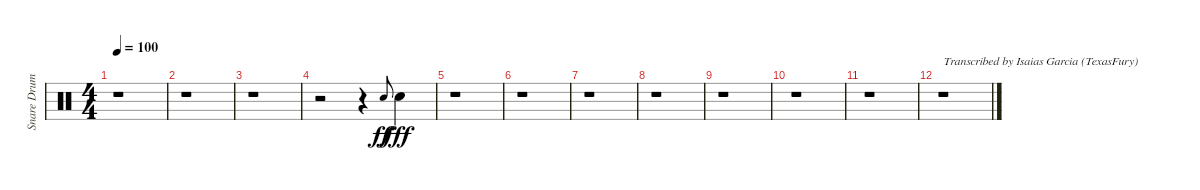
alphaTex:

\track ("Snare Drum" "Snare Drum") {instrument percussion}
\staff {score}
\articulation defaults
\ts (4 4)
\tempo 100
\clef neutral
\ks aminor
r.1{dy fff} |
r.1 |
r.1 |
r.2 r.4 "Electric Snare (hit)".8{gr onbeat dy ff} "Electric Snare (hit)".4{dy fff} |
r.1 |
r.1 |
r.1 |
r.1 |
r.1 |
r.1 |
r.1 |
r.1{txt "Transcribed by Isaias Garcia (TexasFury)"}
